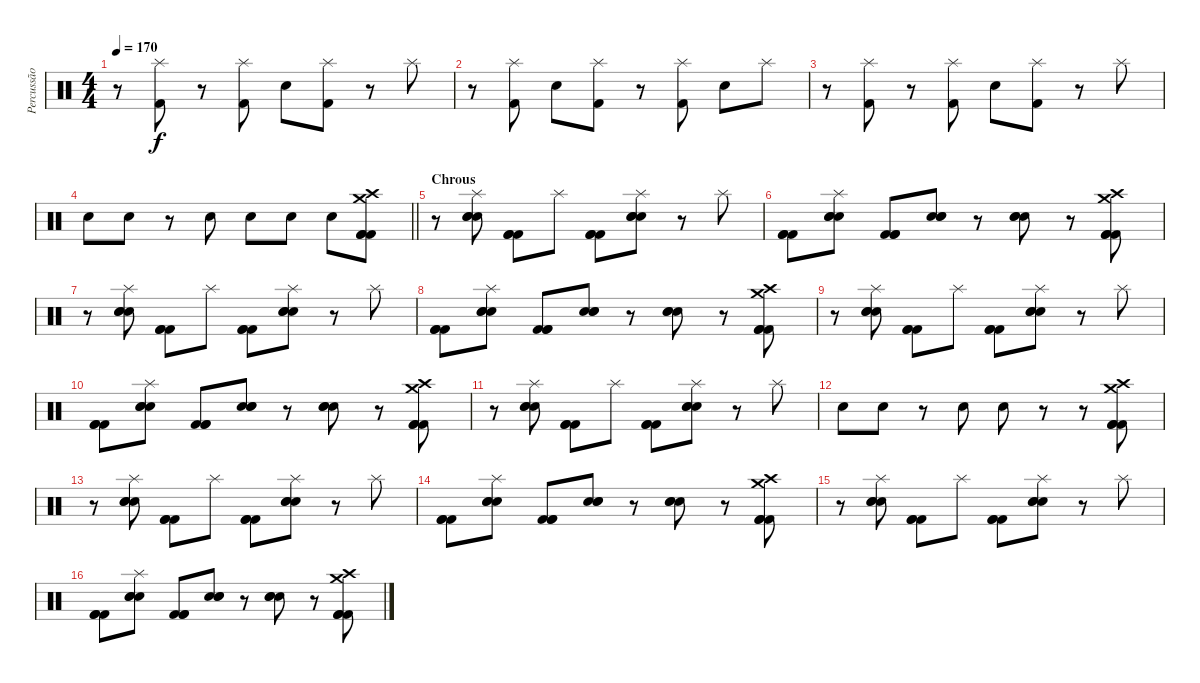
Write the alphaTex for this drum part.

\track ("Percussão" "Percussão") {instrument percussion}
\staff {score}
\articulation defaults
\ts (4 4)
\tempo 170
\clef neutral
\ks c
r.8{dy f} ("Splash (hit)" "Kick (hit) 2").8 r.8 ("Splash (hit)" "Kick (hit) 2").8 "Electric Snare (hit)".8 ("Splash (hit)" "Kick (hit) 2").8 r.8 "Splash (hit)".8 |
r.8 ("Splash (hit)" "Kick (hit) 2").8 "Electric Snare (hit)".8 ("Splash (hit)" "Kick (hit) 2").8 r.8 ("Splash (hit)" "Kick (hit) 2").8 "Electric Snare (hit)".8 "Splash (hit)".8 |
r.8 ("Splash (hit)" "Kick (hit) 2").8 r.8 ("Splash (hit)" "Kick (hit) 2").8 "Electric Snare (hit)".8 ("Splash (hit)" "Kick (hit) 2").8 r.8 "Splash (hit)".8 |
\barLineRight lightlight "Electric Snare (hit)".8 "Electric Snare (hit)".8
r.8 "Electric Snare (hit)".8 "Electric Snare (hit)".8 "Electric Snare (hit)".8 "Electric Snare (hit)".8 ("Crash high (hit)" "Crash medium (hit)" "Kick (hit) 2" "Kick (hit) 2" "Kick (hit) 2").8 |
\section ("" "Chrous")
r.8 ("Splash (hit)" "Electric Snare (hit)" "Electric Snare (hit)" "Electric Snare (hit)").8 ("Kick (hit) 2" "Kick (hit) 2" "Kick (hit) 2").8 "Splash (hit)".8 ("Kick (hit) 2" "Kick (hit) 2" "Kick (hit) 2").8 ("Splash (hit)" "Electric Snare (hit)" "Electric Snare (hit)" "Electric Snare (hit)").8 r.8 "Splash (hit)".8 |
("Kick (hit) 2" "Kick (hit) 2" "Kick (hit) 2").8 ("Splash (hit)" "Electric Snare (hit)" "Electric Snare (hit)" "Electric Snare (hit)").8 ("Kick (hit) 2" "Kick (hit) 2" "Kick (hit) 2").8 ("Electric Snare (hit)" "Electric Snare (hit)" "Electric Snare (hit)").8 r.8 ("Electric Snare (hit)" "Electric Snare (hit)" "Electric Snare (hit)").8 r.8 ("Crash high (hit)" "Crash medium (hit)" "Kick (hit) 2" "Kick (hit) 2" "Kick (hit) 2").8 |
r.8 ("Splash (hit)" "Electric Snare (hit)" "Electric Snare (hit)" "Electric Snare (hit)").8 ("Kick (hit) 2" "Kick (hit) 2" "Kick (hit) 2").8 "Splash (hit)".8 ("Kick (hit) 2" "Kick (hit) 2" "Kick (hit) 2").8 ("Splash (hit)" "Electric Snare (hit)" "Electric Snare (hit)" "Electric Snare (hit)").8 r.8 "Splash (hit)".8 |
("Kick (hit) 2" "Kick (hit) 2" "Kick (hit) 2").8 ("Splash (hit)" "Electric Snare (hit)" "Electric Snare (hit)" "Electric Snare (hit)").8 ("Kick (hit) 2" "Kick (hit) 2" "Kick (hit) 2").8 ("Electric Snare (hit)" "Electric Snare (hit)" "Electric Snare (hit)").8 r.8 ("Electric Snare (hit)" "Electric Snare (hit)" "Electric Snare (hit)").8 r.8 ("Crash high (hit)" "Crash medium (hit)" "Kick (hit) 2" "Kick (hit) 2" "Kick (hit) 2").8 |
r.8 ("Splash (hit)" "Electric Snare (hit)" "Electric Snare (hit)" "Electric Snare (hit)").8 ("Kick (hit) 2" "Kick (hit) 2" "Kick (hit) 2").8 "Splash (hit)".8 ("Kick (hit) 2" "Kick (hit) 2" "Kick (hit) 2").8 ("Splash (hit)" "Electric Snare (hit)" "Electric Snare (hit)" "Electric Snare (hit)").8 r.8 "Splash (hit)".8 |
("Kick (hit) 2" "Kick (hit) 2" "Kick (hit) 2").8 ("Splash (hit)" "Electric Snare (hit)" "Electric Snare (hit)" "Electric Snare (hit)").8 ("Kick (hit) 2" "Kick (hit) 2" "Kick (hit) 2").8 ("Electric Snare (hit)" "Electric Snare (hit)" "Electric Snare (hit)").8 r.8 ("Electric Snare (hit)" "Electric Snare (hit)" "Electric Snare (hit)").8 r.8 ("Crash high (hit)" "Crash medium (hit)" "Kick (hit) 2" "Kick (hit) 2" "Kick (hit) 2").8 |
r.8 ("Splash (hit)" "Electric Snare (hit)" "Electric Snare (hit)" "Electric Snare (hit)").8 ("Kick (hit) 2" "Kick (hit) 2" "Kick (hit) 2").8 "Splash (hit)".8 ("Kick (hit) 2" "Kick (hit) 2" "Kick (hit) 2").8 ("Splash (hit)" "Electric Snare (hit)" "Electric Snare (hit)" "Electric Snare (hit)").8 r.8 "Splash (hit)".8 |
"Electric Snare (hit)".8 "Electric Snare (hit)".8 r.8 "Electric Snare (hit)".8 "Electric Snare (hit)".8 r.8 r.8 ("Crash high (hit)" "Crash medium (hit)" "Kick (hit) 2" "Kick (hit) 2" "Kick (hit) 2").8 |
r.8 ("Splash (hit)" "Electric Snare (hit)" "Electric Snare (hit)" "Electric Snare (hit)").8 ("Kick (hit) 2" "Kick (hit) 2" "Kick (hit) 2").8 "Splash (hit)".8 ("Kick (hit) 2" "Kick (hit) 2" "Kick (hit) 2").8 ("Splash (hit)" "Electric Snare (hit)" "Electric Snare (hit)" "Electric Snare (hit)").8 r.8 "Splash (hit)".8 |
("Kick (hit) 2" "Kick (hit) 2" "Kick (hit) 2").8 ("Splash (hit)" "Electric Snare (hit)" "Electric Snare (hit)" "Electric Snare (hit)").8 ("Kick (hit) 2" "Kick (hit) 2" "Kick (hit) 2").8 ("Electric Snare (hit)" "Electric Snare (hit)" "Electric Snare (hit)").8 r.8 ("Electric Snare (hit)" "Electric Snare (hit)" "Electric Snare (hit)").8 r.8 ("Crash high (hit)" "Crash medium (hit)" "Kick (hit) 2" "Kick (hit) 2" "Kick (hit) 2").8 |
r.8 ("Splash (hit)" "Electric Snare (hit)" "Electric Snare (hit)" "Electric Snare (hit)").8 ("Kick (hit) 2" "Kick (hit) 2" "Kick (hit) 2").8 "Splash (hit)".8 ("Kick (hit) 2" "Kick (hit) 2" "Kick (hit) 2").8 ("Splash (hit)" "Electric Snare (hit)" "Electric Snare (hit)" "Electric Snare (hit)").8 r.8 "Splash (hit)".8 |
("Kick (hit) 2" "Kick (hit) 2" "Kick (hit) 2").8 ("Splash (hit)" "Electric Snare (hit)" "Electric Snare (hit)" "Electric Snare (hit)").8 ("Kick (hit) 2" "Kick (hit) 2" "Kick (hit) 2").8 ("Electric Snare (hit)" "Electric Snare (hit)" "Electric Snare (hit)").8 r.8 ("Electric Snare (hit)" "Electric Snare (hit)" "Electric Snare (hit)").8 r.8 ("Crash high (hit)" "Crash medium (hit)" "Kick (hit) 2" "Kick (hit) 2" "Kick (hit) 2").8
